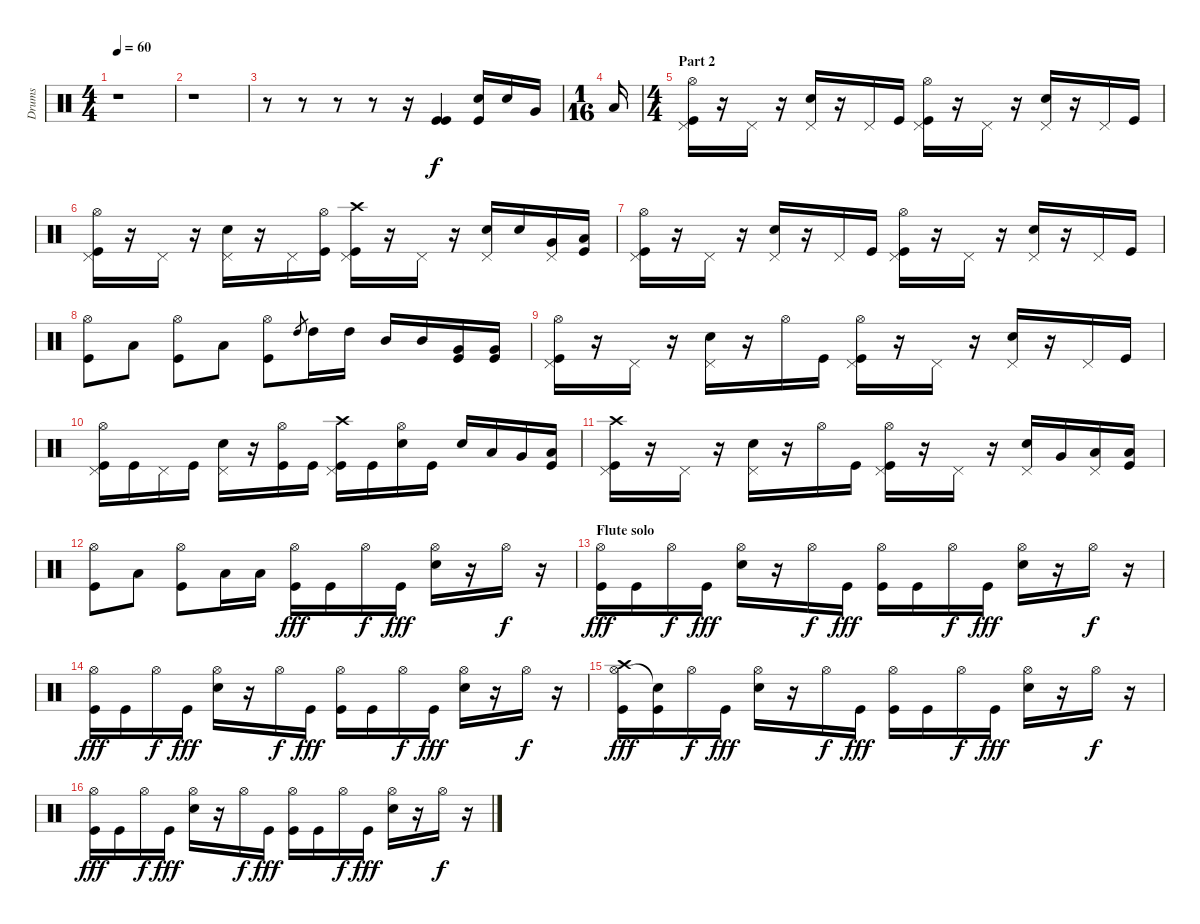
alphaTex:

\track ("Drums" "Drums") {instrument percussion}
\staff {score}
\articulation defaults
\ts (4 4)
\tempo 60
\clef neutral
\ks c
r.1{dy fff} |
r.1 |
r.8 r.8 r.8 r.8 r.16 ("Kick (hit)" "Kick (hit)").4{dy f} ("Snare (hit) 2" "Kick (hit)").16 "Snare (hit) 2".16 "Very Low Tom (hit)".16 |
\ts (1 16)
"Low Floor Tom (hit)".16 |
\ts (4 4)
\section ("" "Part 2")
("Pedal Hi-Hat (hit)" "Hi-Hat (open)" "Kick (hit)").16 r.16 "Pedal Hi-Hat (hit)".16 r.16 ("Pedal Hi-Hat (hit)" "Snare (hit) 2").16 r.16 "Pedal Hi-Hat (hit)".16 "Kick (hit)".16 ("Pedal Hi-Hat (hit)" "Hi-Hat (open)" "Kick (hit)").16 r.16 "Pedal Hi-Hat (hit)".16 r.16 ("Pedal Hi-Hat (hit)" "Snare (hit) 2").16 r.16 "Pedal Hi-Hat (hit)".16 "Kick (hit)".16 |
("Pedal Hi-Hat (hit)" "Hi-Hat (open)" "Kick (hit)").16 r.16 "Pedal Hi-Hat (hit)".16 r.16 ("Pedal Hi-Hat (hit)" "Snare (hit) 2").16 r.16 "Pedal Hi-Hat (hit)".16 ("Hi-Hat (open)" "Kick (hit)").16 ("Pedal Hi-Hat (hit)" "Crash high (hit)" "Kick (hit)").16 r.16 "Pedal Hi-Hat (hit)".16 r.16 ("Pedal Hi-Hat (hit)" "Snare (hit) 2").16 "Snare (hit) 2".16 ("Pedal Hi-Hat (hit)" "Very Low Tom (hit)").16 ("Low Floor Tom (hit)" "Kick (hit)").16 |
("Pedal Hi-Hat (hit)" "Hi-Hat (open)" "Kick (hit)").16 r.16 "Pedal Hi-Hat (hit)".16 r.16 ("Pedal Hi-Hat (hit)" "Snare (hit) 2").16 r.16 "Pedal Hi-Hat (hit)".16 "Kick (hit)".16 ("Pedal Hi-Hat (hit)" "Hi-Hat (open)" "Kick (hit)").16 r.16 "Pedal Hi-Hat (hit)".16 r.16 ("Pedal Hi-Hat (hit)" "Snare (hit) 2").16 r.16 "Pedal Hi-Hat (hit)".16 "Kick (hit)".16 |
("Hi-Hat (open)" "Kick (hit)").8 "Low Floor Tom (hit)".8 ("Hi-Hat (open)" "Kick (hit)").8 "Low Floor Tom (hit)".8 ("Hi-Hat (open)" "Kick (hit)").8 "High Tom (hit)".8{gr} "High Tom (hit)".16 "High Tom (hit)".16 "Mid Tom (hit)".16 "Mid Tom (hit)".16 ("Very Low Tom (hit)" "Kick (hit)").16 ("Very Low Tom (hit)" "Kick (hit)").16 |
("Pedal Hi-Hat (hit)" "Hi-Hat (open)" "Kick (hit)").16 r.16 "Pedal Hi-Hat (hit)".16 r.16 ("Pedal Hi-Hat (hit)" "Snare (hit) 2").16 r.16 "Hi-Hat (open)".16 "Kick (hit)".16 ("Pedal Hi-Hat (hit)" "Hi-Hat (open)" "Kick (hit)").16 r.16 "Pedal Hi-Hat (hit)".16 r.16 ("Pedal Hi-Hat (hit)" "Snare (hit) 2").16 r.16 "Pedal Hi-Hat (hit)".16 "Kick (hit)".16 |
("Pedal Hi-Hat (hit)" "Hi-Hat (open)" "Kick (hit)").16 "Kick (hit)".16 "Pedal Hi-Hat (hit)".16 "Kick (hit)".16 ("Pedal Hi-Hat (hit)" "Snare (hit) 2").16 r.16 ("Hi-Hat (open)" "Kick (hit)").16 "Kick (hit)".16 ("Pedal Hi-Hat (hit)" "Crash high (hit)" "Kick (hit)").16 "Kick (hit)".16 ("Hi-Hat (open)" "Snare (hit) 2").16 "Kick (hit)".16 "Snare (hit) 2".16 "Low Tom (hit)".16 "Very Low Tom (hit)".16 ("Low Floor Tom (hit)" "Kick (hit)").16 |
("Pedal Hi-Hat (hit)" "Crash high (hit)" "Kick (hit)").16 r.16 "Pedal Hi-Hat (hit)".16 r.16 ("Pedal Hi-Hat (hit)" "Snare (hit) 2").16 r.16 "Hi-Hat (open)".16 "Kick (hit)".16 ("Pedal Hi-Hat (hit)" "Hi-Hat (open)" "Kick (hit)").16 r.16 "Pedal Hi-Hat (hit)".16 r.16 ("Pedal Hi-Hat (hit)" "Snare (hit) 2").16 "Very Low Tom (hit)".16 ("Pedal Hi-Hat (hit)" "Low Floor Tom (hit)").16 ("Low Floor Tom (hit)" "Kick (hit)").16 |
("Hi-Hat (open)" "Kick (hit)").8 "Low Floor Tom (hit)".8 ("Hi-Hat (open)" "Kick (hit)").8 "Low Floor Tom (hit)".16 "Low Floor Tom (hit)".16 ("Hi-Hat (open)" "Kick (hit)").16{dy fff} "Kick (hit)".16 "Hi-Hat (open)".16{dy f} "Kick (hit)".16{dy fff} ("Hi-Hat (open)" "Snare (hit) 2").16 r.16 "Hi-Hat (open)".16{dy f} r.16 |
\section ("" "Flute solo")
("Hi-Hat (open)" "Kick (hit)").16{dy fff} "Kick (hit)".16 "Hi-Hat (open)".16{dy f} "Kick (hit)".16{dy fff} ("Hi-Hat (open)" "Snare (hit) 2").16 r.16 "Hi-Hat (open)".16{dy f} "Kick (hit)".16{dy fff} ("Hi-Hat (open)" "Kick (hit)").16 "Kick (hit)".16 "Hi-Hat (open)".16{dy f} "Kick (hit)".16{dy fff} ("Hi-Hat (open)" "Snare (hit) 2").16 r.16 "Hi-Hat (open)".16{dy f} r.16 |
("Hi-Hat (open)" "Kick (hit)").16{dy fff} "Kick (hit)".16 "Hi-Hat (open)".16{dy f} "Kick (hit)".16{dy fff} ("Hi-Hat (open)" "Snare (hit) 2").16 r.16 "Hi-Hat (open)".16{dy f} "Kick (hit)".16{dy fff} ("Hi-Hat (open)" "Kick (hit)").16 "Kick (hit)".16 "Hi-Hat (open)".16{dy f} "Kick (hit)".16{dy fff} ("Hi-Hat (open)" "Snare (hit) 2").16 r.16 "Hi-Hat (open)".16{dy f} r.16 |
("Hi-Hat (open)" "Crash high (hit)" "Kick (hit)").16{dy fff} ("Snare (hit)"{t} "Kick (hit)").16 "Hi-Hat (open)".16{dy f} "Kick (hit)".16{dy fff} ("Hi-Hat (open)" "Snare (hit) 2").16 r.16 "Hi-Hat (open)".16{dy f} "Kick (hit)".16{dy fff} ("Hi-Hat (open)" "Kick (hit)").16 "Kick (hit)".16 "Hi-Hat (open)".16{dy f} "Kick (hit)".16{dy fff} ("Hi-Hat (open)" "Snare (hit) 2").16 r.16 "Hi-Hat (open)".16{dy f} r.16 |
("Hi-Hat (open)" "Kick (hit)").16{dy fff} "Kick (hit)".16 "Hi-Hat (open)".16{dy f} "Kick (hit)".16{dy fff} ("Hi-Hat (open)" "Snare (hit) 2").16 r.16 "Hi-Hat (open)".16{dy f} "Kick (hit)".16{dy fff} ("Hi-Hat (open)" "Kick (hit)").16 "Kick (hit)".16 "Hi-Hat (open)".16{dy f} "Kick (hit)".16{dy fff} ("Hi-Hat (open)" "Snare (hit) 2").16 r.16 "Hi-Hat (open)".16{dy f} r.16
